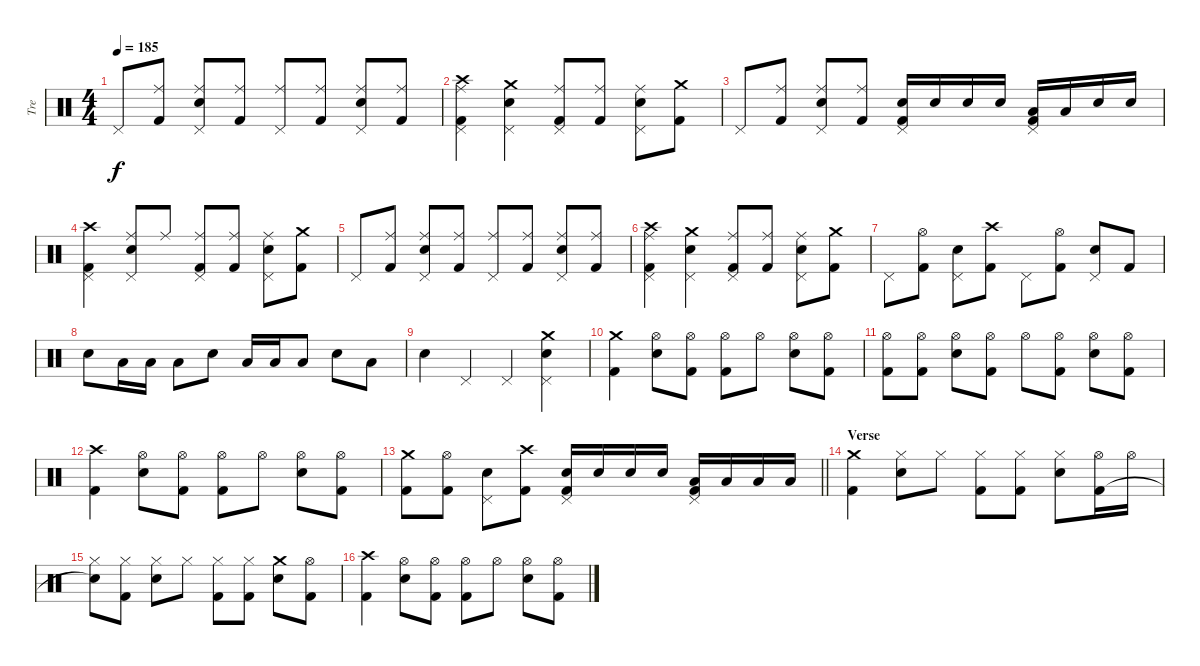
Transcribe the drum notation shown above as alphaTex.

\track ("Tre" "Tre") {instrument percussion}
\staff {score}
\articulation defaults
\ts (4 4)
\tempo 185
\clef neutral
\ks c "Pedal Hi-Hat (hit)".8{dy f}
("Ride (middle)" "Kick (hit) 2").8 ("Ride (middle)" "Snare (hit) 2" "Pedal Hi-Hat (hit)").8 ("Ride (middle)" "Kick (hit) 2").8 ("Ride (middle)" "Pedal Hi-Hat (hit)").8 ("Ride (middle)" "Kick (hit) 2").8 ("Ride (middle)" "Snare (hit) 2" "Pedal Hi-Hat (hit)").8 ("Ride (middle)" "Kick (hit) 2").8 |
("Crash high (hit)" "Ride (middle)" "Pedal Hi-Hat (hit)" "Kick (hit) 2").4 ("Crash medium (hit)" "Snare (hit) 2" "Pedal Hi-Hat (hit)").4 ("Ride (middle)" "Pedal Hi-Hat (hit)" "Kick (hit) 2").8 ("Ride (middle)" "Kick (hit) 2").8 ("Ride (middle)" "Snare (hit) 2" "Pedal Hi-Hat (hit)").8 ("Crash medium (hit)" "Kick (hit) 2").8 |
"Pedal Hi-Hat (hit)".8 ("Ride (middle)" "Kick (hit) 2").8 ("Ride (middle)" "Snare (hit) 2" "Pedal Hi-Hat (hit)").8 ("Ride (middle)" "Kick (hit) 2").8 ("Snare (hit) 2" "Pedal Hi-Hat (hit)" "Kick (hit) 2").16 "Snare (hit) 2".16 "Snare (hit) 2".16 "Snare (hit) 2".16 ("Low Tom (hit)" "Pedal Hi-Hat (hit)" "Kick (hit) 2").16 "Low Tom (hit)".16 "Snare (hit) 2".16 "Snare (hit) 2".16 |
("Crash high (hit)" "Pedal Hi-Hat (hit)" "Kick (hit) 2").4 ("Ride (middle)" "Snare (hit) 2" "Pedal Hi-Hat (hit)").8 "Ride (middle)".8 ("Ride (middle)" "Pedal Hi-Hat (hit)" "Kick (hit) 2").8 ("Ride (middle)" "Kick (hit) 2").8 ("Ride (middle)" "Snare (hit) 2" "Pedal Hi-Hat (hit)").8 ("Crash medium (hit)" "Kick (hit) 2").8 |
"Pedal Hi-Hat (hit)".8 ("Ride (middle)" "Kick (hit) 2").8 ("Ride (middle)" "Snare (hit) 2" "Pedal Hi-Hat (hit)").8 ("Ride (middle)" "Kick (hit) 2").8 ("Ride (middle)" "Pedal Hi-Hat (hit)").8 ("Ride (middle)" "Kick (hit) 2").8 ("Ride (middle)" "Snare (hit) 2" "Pedal Hi-Hat (hit)").8 ("Ride (middle)" "Kick (hit) 2").8 |
("Crash high (hit)" "Ride (middle)" "Pedal Hi-Hat (hit)" "Kick (hit) 2").4 ("Crash medium (hit)" "Snare (hit) 2" "Pedal Hi-Hat (hit)").4 ("Ride (middle)" "Pedal Hi-Hat (hit)" "Kick (hit) 2").8 ("Ride (middle)" "Kick (hit) 2").8 ("Ride (middle)" "Snare (hit) 2" "Pedal Hi-Hat (hit)").8 ("Crash medium (hit)" "Kick (hit) 2").8 |
"Pedal Hi-Hat (hit)".8 ("Hi-Hat (open)" "Kick (hit) 2").8 ("Snare (hit) 2" "Pedal Hi-Hat (hit)").8 ("Crash high (hit)" "Kick (hit) 2").8 "Pedal Hi-Hat (hit)".8 ("Hi-Hat (open)" "Kick (hit) 2").8 ("Snare (hit) 2" "Pedal Hi-Hat (hit)").8 "Kick (hit) 2".8 |
"Snare (hit) 2".8 "Low Floor Tom (hit)".16 "Low Floor Tom (hit)".16 "Low Floor Tom (hit)".8 "Snare (hit) 2".8 "Low Floor Tom (hit)".16 "Low Floor Tom (hit)".16 "Low Floor Tom (hit)".8 "Snare (hit) 2".8 "Low Floor Tom (hit)".8 |
"Snare (hit) 2".4 "Pedal Hi-Hat (hit)".4 "Pedal Hi-Hat (hit)".4 ("Crash medium (hit)" "Snare (hit) 2" "Pedal Hi-Hat (hit)").4 |
("Crash medium (hit)" "Kick (hit) 2").4 ("Hi-Hat (open)" "Snare (hit) 2").8 ("Hi-Hat (open)" "Kick (hit) 2").8 ("Hi-Hat (open)" "Kick (hit) 2").8 "Hi-Hat (open)".8 ("Hi-Hat (open)" "Snare (hit) 2").8 ("Hi-Hat (open)" "Kick (hit) 2").8 |
("Hi-Hat (open)" "Kick (hit) 2").8 ("Hi-Hat (open)" "Kick (hit) 2").8 ("Hi-Hat (open)" "Snare (hit) 2").8 ("Hi-Hat (open)" "Kick (hit) 2").8 "Hi-Hat (open)".8 ("Hi-Hat (open)" "Kick (hit) 2").8 ("Hi-Hat (open)" "Snare (hit) 2").8 ("Hi-Hat (open)" "Kick (hit) 2").8 |
("Crash high (hit)" "Kick (hit) 2").4 ("Hi-Hat (open)" "Snare (hit) 2").8 ("Hi-Hat (open)" "Kick (hit) 2").8 ("Hi-Hat (open)" "Kick (hit) 2").8 "Hi-Hat (open)".8 ("Hi-Hat (open)" "Snare (hit) 2").8 ("Hi-Hat (open)" "Kick (hit) 2").8 |
\barLineRight lightlight
("Crash medium (hit)" "Kick (hit) 2").8 ("Hi-Hat (open)" "Kick (hit) 2").8 ("Snare (hit) 2" "Pedal Hi-Hat (hit)").8 ("Crash high (hit)" "Kick (hit) 2").8 ("Snare (hit) 2" "Pedal Hi-Hat (hit)" "Kick (hit) 2").16 "Snare (hit) 2".16 "Snare (hit) 2".16 "Snare (hit) 2".16 ("Low Tom (hit)" "Pedal Hi-Hat (hit)" "Kick (hit) 2").16 "Low Tom (hit)".16 "Low Tom (hit)".16 "Low Tom (hit)".16 |
\section ("" "Verse")
("Crash medium (hit)" "Kick (hit) 2").4 ("Hi-Hat (closed)" "Snare (hit) 2").8 "Hi-Hat (closed)".8 ("Hi-Hat (closed)" "Kick (hit) 2").8 ("Hi-Hat (closed)" "Kick (hit) 2").8 ("Hi-Hat (closed)" "Snare (hit) 2").8 ("Hi-Hat (open)" "Kick (hit) 2").16 "Hi-Hat (open)".16 |
("Hi-Hat (closed)" "Snare (hit)"{t}).8 ("Hi-Hat (closed)" "Kick (hit) 2").8 ("Hi-Hat (closed)" "Snare (hit) 2").8 "Hi-Hat (closed)".8 ("Hi-Hat (closed)" "Kick (hit) 2").8 ("Hi-Hat (closed)" "Kick (hit) 2").8 ("Crash medium (hit)" "Snare (hit) 2").8 ("Hi-Hat (open)" "Kick (hit) 2").8 |
("Crash high (hit)" "Kick (hit) 2").4 ("Hi-Hat (open)" "Snare (hit) 2").8 ("Hi-Hat (open)" "Kick (hit) 2").8 ("Hi-Hat (open)" "Kick (hit) 2").8 "Hi-Hat (open)".8 ("Hi-Hat (open)" "Snare (hit) 2").8 ("Hi-Hat (open)" "Kick (hit) 2").8
